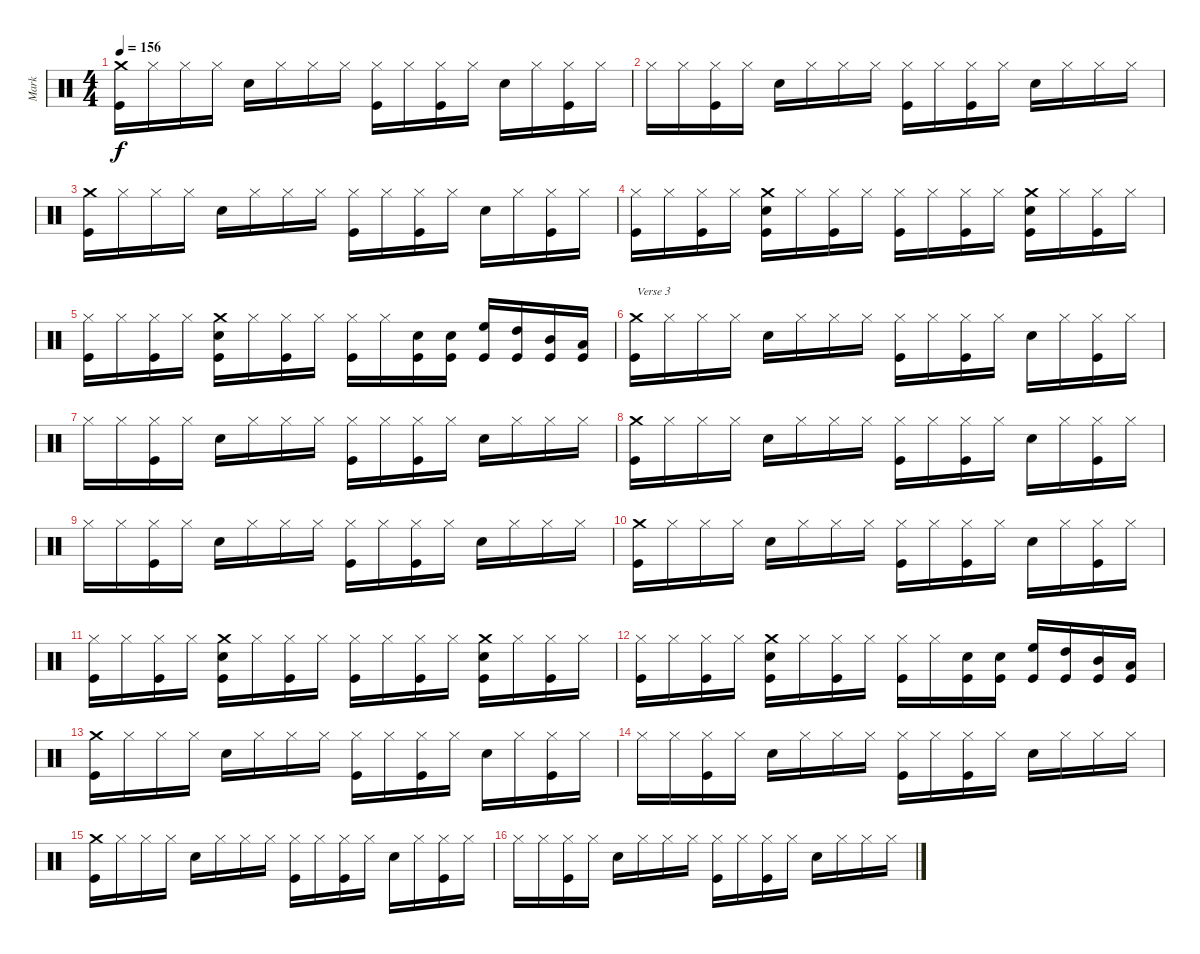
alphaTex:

\track ("Mark" "Mark") {instrument percussion}
\staff {score}
\articulation defaults
\ts (4 4)
\tempo 156
\clef neutral
\ks c
("Kick (hit)" "Crash medium (hit)").16{dy f} "Hi-Hat (closed)".16 "Hi-Hat (closed)".16 "Hi-Hat (closed)".16 "Snare (hit) 2".16 "Hi-Hat (closed)".16 "Hi-Hat (closed)".16 "Hi-Hat (closed)".16 ("Kick (hit)" "Hi-Hat (closed)").16 "Hi-Hat (closed)".16 ("Kick (hit)" "Hi-Hat (closed)").16 "Hi-Hat (closed)".16 "Snare (hit) 2".16 "Hi-Hat (closed)".16 ("Kick (hit)" "Hi-Hat (closed)").16 "Hi-Hat (closed)".16 |
"Hi-Hat (closed)".16 "Hi-Hat (closed)".16 ("Kick (hit)" "Hi-Hat (closed)").16 "Hi-Hat (closed)".16 "Snare (hit) 2".16 "Hi-Hat (closed)".16 "Hi-Hat (closed)".16 "Hi-Hat (closed)".16 ("Kick (hit)" "Hi-Hat (closed)").16 "Hi-Hat (closed)".16 ("Kick (hit)" "Hi-Hat (closed)").16 "Hi-Hat (closed)".16 "Snare (hit) 2".16 "Hi-Hat (closed)".16 "Hi-Hat (closed)".16 "Hi-Hat (closed)".16 |
("Kick (hit)" "Crash medium (hit)").16 "Hi-Hat (closed)".16 "Hi-Hat (closed)".16 "Hi-Hat (closed)".16 "Snare (hit) 2".16 "Hi-Hat (closed)".16 "Hi-Hat (closed)".16 "Hi-Hat (closed)".16 ("Kick (hit)" "Hi-Hat (closed)").16 "Hi-Hat (closed)".16 ("Kick (hit)" "Hi-Hat (closed)").16 "Hi-Hat (closed)".16 "Snare (hit) 2".16 "Hi-Hat (closed)".16 ("Kick (hit)" "Hi-Hat (closed)").16 "Hi-Hat (closed)".16 |
("Kick (hit)" "Hi-Hat (closed)").16 "Hi-Hat (closed)".16 ("Kick (hit)" "Hi-Hat (closed)").16 "Hi-Hat (closed)".16 ("Kick (hit)" "Snare (hit) 2" "Crash medium (hit)").16 "Hi-Hat (closed)".16 ("Kick (hit)" "Hi-Hat (closed)").16 "Hi-Hat (closed)".16 ("Kick (hit)" "Hi-Hat (closed)").16 "Hi-Hat (closed)".16 ("Kick (hit)" "Hi-Hat (closed)").16 "Hi-Hat (closed)".16 ("Kick (hit)" "Snare (hit) 2" "Crash medium (hit)").16 "Hi-Hat (closed)".16 ("Kick (hit)" "Hi-Hat (closed)").16 "Hi-Hat (closed)".16 |
("Kick (hit)" "Hi-Hat (closed)").16 "Hi-Hat (closed)".16 ("Kick (hit)" "Hi-Hat (closed)").16 "Hi-Hat (closed)".16 ("Kick (hit)" "Snare (hit) 2" "Crash medium (hit)").16 "Hi-Hat (closed)".16 ("Kick (hit)" "Hi-Hat (closed)").16 "Hi-Hat (closed)".16 ("Kick (hit)" "Hi-Hat (closed)").16 "Hi-Hat (closed)".16 ("Snare (hit) 2" "Kick (hit)").16 ("Snare (hit) 2" "Kick (hit)").16 ("High Floor Tom (hit)" "Kick (hit)").16 ("High Tom (hit)" "Kick (hit)").16 ("Mid Tom (hit)" "Kick (hit)").16 ("Low Tom (hit)" "Kick (hit)").16 |
("Kick (hit)" "Crash medium (hit)").16{txt "Verse 3"} "Hi-Hat (closed)".16 "Hi-Hat (closed)".16 "Hi-Hat (closed)".16 "Snare (hit) 2".16 "Hi-Hat (closed)".16 "Hi-Hat (closed)".16 "Hi-Hat (closed)".16 ("Kick (hit)" "Hi-Hat (closed)").16 "Hi-Hat (closed)".16 ("Kick (hit)" "Hi-Hat (closed)").16 "Hi-Hat (closed)".16 "Snare (hit) 2".16 "Hi-Hat (closed)".16 ("Kick (hit)" "Hi-Hat (closed)").16 "Hi-Hat (closed)".16 |
"Hi-Hat (closed)".16 "Hi-Hat (closed)".16 ("Kick (hit)" "Hi-Hat (closed)").16 "Hi-Hat (closed)".16 "Snare (hit) 2".16 "Hi-Hat (closed)".16 "Hi-Hat (closed)".16 "Hi-Hat (closed)".16 ("Kick (hit)" "Hi-Hat (closed)").16 "Hi-Hat (closed)".16 ("Kick (hit)" "Hi-Hat (closed)").16 "Hi-Hat (closed)".16 "Snare (hit) 2".16 "Hi-Hat (closed)".16 "Hi-Hat (closed)".16 "Hi-Hat (closed)".16 |
("Kick (hit)" "Crash medium (hit)").16 "Hi-Hat (closed)".16 "Hi-Hat (closed)".16 "Hi-Hat (closed)".16 "Snare (hit) 2".16 "Hi-Hat (closed)".16 "Hi-Hat (closed)".16 "Hi-Hat (closed)".16 ("Kick (hit)" "Hi-Hat (closed)").16 "Hi-Hat (closed)".16 ("Kick (hit)" "Hi-Hat (closed)").16 "Hi-Hat (closed)".16 "Snare (hit) 2".16 "Hi-Hat (closed)".16 ("Kick (hit)" "Hi-Hat (closed)").16 "Hi-Hat (closed)".16 |
"Hi-Hat (closed)".16 "Hi-Hat (closed)".16 ("Kick (hit)" "Hi-Hat (closed)").16 "Hi-Hat (closed)".16 "Snare (hit) 2".16 "Hi-Hat (closed)".16 "Hi-Hat (closed)".16 "Hi-Hat (closed)".16 ("Kick (hit)" "Hi-Hat (closed)").16 "Hi-Hat (closed)".16 ("Kick (hit)" "Hi-Hat (closed)").16 "Hi-Hat (closed)".16 "Snare (hit) 2".16 "Hi-Hat (closed)".16 "Hi-Hat (closed)".16 "Hi-Hat (closed)".16 |
("Kick (hit)" "Crash medium (hit)").16 "Hi-Hat (closed)".16 "Hi-Hat (closed)".16 "Hi-Hat (closed)".16 "Snare (hit) 2".16 "Hi-Hat (closed)".16 "Hi-Hat (closed)".16 "Hi-Hat (closed)".16 ("Kick (hit)" "Hi-Hat (closed)").16 "Hi-Hat (closed)".16 ("Kick (hit)" "Hi-Hat (closed)").16 "Hi-Hat (closed)".16 "Snare (hit) 2".16 "Hi-Hat (closed)".16 ("Kick (hit)" "Hi-Hat (closed)").16 "Hi-Hat (closed)".16 |
("Kick (hit)" "Hi-Hat (closed)").16 "Hi-Hat (closed)".16 ("Kick (hit)" "Hi-Hat (closed)").16 "Hi-Hat (closed)".16 ("Kick (hit)" "Snare (hit) 2" "Crash medium (hit)").16 "Hi-Hat (closed)".16 ("Kick (hit)" "Hi-Hat (closed)").16 "Hi-Hat (closed)".16 ("Kick (hit)" "Hi-Hat (closed)").16 "Hi-Hat (closed)".16 ("Kick (hit)" "Hi-Hat (closed)").16 "Hi-Hat (closed)".16 ("Kick (hit)" "Snare (hit) 2" "Crash medium (hit)").16 "Hi-Hat (closed)".16 ("Kick (hit)" "Hi-Hat (closed)").16 "Hi-Hat (closed)".16 |
("Kick (hit)" "Hi-Hat (closed)").16 "Hi-Hat (closed)".16 ("Kick (hit)" "Hi-Hat (closed)").16 "Hi-Hat (closed)".16 ("Kick (hit)" "Snare (hit) 2" "Crash medium (hit)").16 "Hi-Hat (closed)".16 ("Kick (hit)" "Hi-Hat (closed)").16 "Hi-Hat (closed)".16 ("Kick (hit)" "Hi-Hat (closed)").16 "Hi-Hat (closed)".16 ("Snare (hit) 2" "Kick (hit)").16 ("Snare (hit) 2" "Kick (hit)").16 ("High Floor Tom (hit)" "Kick (hit)").16 ("High Tom (hit)" "Kick (hit)").16 ("Mid Tom (hit)" "Kick (hit)").16 ("Low Tom (hit)" "Kick (hit)").16 |
("Kick (hit)" "Crash medium (hit)").16 "Hi-Hat (closed)".16 "Hi-Hat (closed)".16 "Hi-Hat (closed)".16 "Snare (hit) 2".16 "Hi-Hat (closed)".16 "Hi-Hat (closed)".16 "Hi-Hat (closed)".16 ("Kick (hit)" "Hi-Hat (closed)").16 "Hi-Hat (closed)".16 ("Kick (hit)" "Hi-Hat (closed)").16 "Hi-Hat (closed)".16 "Snare (hit) 2".16 "Hi-Hat (closed)".16 ("Kick (hit)" "Hi-Hat (closed)").16 "Hi-Hat (closed)".16 |
"Hi-Hat (closed)".16 "Hi-Hat (closed)".16 ("Kick (hit)" "Hi-Hat (closed)").16 "Hi-Hat (closed)".16 "Snare (hit) 2".16 "Hi-Hat (closed)".16 "Hi-Hat (closed)".16 "Hi-Hat (closed)".16 ("Kick (hit)" "Hi-Hat (closed)").16 "Hi-Hat (closed)".16 ("Kick (hit)" "Hi-Hat (closed)").16 "Hi-Hat (closed)".16 "Snare (hit) 2".16 "Hi-Hat (closed)".16 "Hi-Hat (closed)".16 "Hi-Hat (closed)".16 |
("Kick (hit)" "Crash medium (hit)").16 "Hi-Hat (closed)".16 "Hi-Hat (closed)".16 "Hi-Hat (closed)".16 "Snare (hit) 2".16 "Hi-Hat (closed)".16 "Hi-Hat (closed)".16 "Hi-Hat (closed)".16 ("Kick (hit)" "Hi-Hat (closed)").16 "Hi-Hat (closed)".16 ("Kick (hit)" "Hi-Hat (closed)").16 "Hi-Hat (closed)".16 "Snare (hit) 2".16 "Hi-Hat (closed)".16 ("Kick (hit)" "Hi-Hat (closed)").16 "Hi-Hat (closed)".16 |
"Hi-Hat (closed)".16 "Hi-Hat (closed)".16 ("Kick (hit)" "Hi-Hat (closed)").16 "Hi-Hat (closed)".16 "Snare (hit) 2".16 "Hi-Hat (closed)".16 "Hi-Hat (closed)".16 "Hi-Hat (closed)".16 ("Kick (hit)" "Hi-Hat (closed)").16 "Hi-Hat (closed)".16 ("Kick (hit)" "Hi-Hat (closed)").16 "Hi-Hat (closed)".16 "Snare (hit) 2".16 "Hi-Hat (closed)".16 "Hi-Hat (closed)".16 "Hi-Hat (closed)".16
